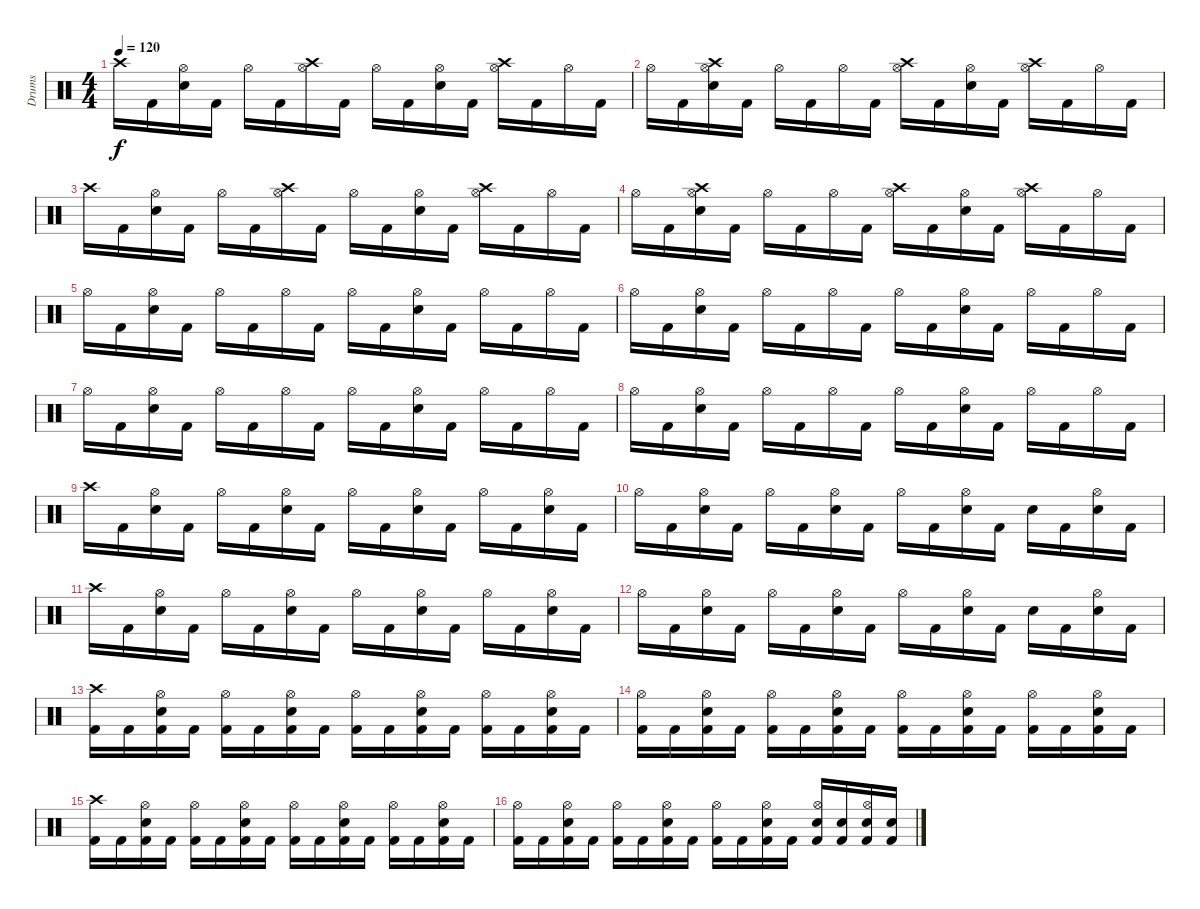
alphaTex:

\track ("Drums" "Drums") {instrument percussion}
\staff {score}
\articulation defaults
\ts (4 4)
\tempo 120
\clef neutral
\ks c "Crash high (hit)".16{dy f} "Kick (hit) 2".16
("Hi-Hat (open)" "Snare (hit) 2").16 "Kick (hit) 2".16 "Hi-Hat (open)".16 "Kick (hit) 2".16 ("Crash high (hit)" "Hi-Hat (open)").16 "Kick (hit) 2".16 "Hi-Hat (open)".16 "Kick (hit) 2".16 ("Hi-Hat (open)" "Snare (hit) 2").16 "Kick (hit) 2".16 ("Hi-Hat (open)" "Crash high (hit)").16 "Kick (hit) 2".16 "Hi-Hat (open)".16 "Kick (hit) 2".16 |
"Hi-Hat (open)".16 "Kick (hit) 2".16 ("Snare (hit) 2" "Hi-Hat (open)" "Crash high (hit)").16 "Kick (hit) 2".16 "Hi-Hat (open)".16 "Kick (hit) 2".16 "Hi-Hat (open)".16 "Kick (hit) 2".16 ("Hi-Hat (open)" "Crash high (hit)").16 "Kick (hit) 2".16 ("Snare (hit) 2" "Hi-Hat (open)").16 "Kick (hit) 2".16 ("Hi-Hat (open)" "Crash high (hit)").16 "Kick (hit) 2".16 "Hi-Hat (open)".16 "Kick (hit) 2".16 |
"Crash high (hit)".16 "Kick (hit) 2".16 ("Hi-Hat (open)" "Snare (hit) 2").16 "Kick (hit) 2".16 "Hi-Hat (open)".16 "Kick (hit) 2".16 ("Crash high (hit)" "Hi-Hat (open)").16 "Kick (hit) 2".16 "Hi-Hat (open)".16 "Kick (hit) 2".16 ("Hi-Hat (open)" "Snare (hit) 2").16 "Kick (hit) 2".16 ("Hi-Hat (open)" "Crash high (hit)").16 "Kick (hit) 2".16 "Hi-Hat (open)".16 "Kick (hit) 2".16 |
"Hi-Hat (open)".16 "Kick (hit) 2".16 ("Snare (hit) 2" "Hi-Hat (open)" "Crash high (hit)").16 "Kick (hit) 2".16 "Hi-Hat (open)".16 "Kick (hit) 2".16 "Hi-Hat (open)".16 "Kick (hit) 2".16 ("Hi-Hat (open)" "Crash high (hit)").16 "Kick (hit) 2".16 ("Snare (hit) 2" "Hi-Hat (open)").16 "Kick (hit) 2".16 ("Hi-Hat (open)" "Crash high (hit)").16 "Kick (hit) 2".16 "Hi-Hat (open)".16 "Kick (hit) 2".16 |
"Hi-Hat (open)".16 "Kick (hit) 2".16 ("Hi-Hat (open)" "Snare (hit) 2").16 "Kick (hit) 2".16 "Hi-Hat (open)".16 "Kick (hit) 2".16 "Hi-Hat (open)".16 "Kick (hit) 2".16 "Hi-Hat (open)".16 "Kick (hit) 2".16 ("Hi-Hat (open)" "Snare (hit) 2").16 "Kick (hit) 2".16 "Hi-Hat (open)".16 "Kick (hit) 2".16 "Hi-Hat (open)".16 "Kick (hit) 2".16 |
"Hi-Hat (open)".16 "Kick (hit) 2".16 ("Snare (hit) 2" "Hi-Hat (open)").16 "Kick (hit) 2".16 "Hi-Hat (open)".16 "Kick (hit) 2".16 "Hi-Hat (open)".16 "Kick (hit) 2".16 "Hi-Hat (open)".16 "Kick (hit) 2".16 ("Snare (hit) 2" "Hi-Hat (open)").16 "Kick (hit) 2".16 "Hi-Hat (open)".16 "Kick (hit) 2".16 "Hi-Hat (open)".16 "Kick (hit) 2".16 |
"Hi-Hat (open)".16 "Kick (hit) 2".16 ("Hi-Hat (open)" "Snare (hit) 2").16 "Kick (hit) 2".16 "Hi-Hat (open)".16 "Kick (hit) 2".16 "Hi-Hat (open)".16 "Kick (hit) 2".16 "Hi-Hat (open)".16 "Kick (hit) 2".16 ("Hi-Hat (open)" "Snare (hit) 2").16 "Kick (hit) 2".16 "Hi-Hat (open)".16 "Kick (hit) 2".16 "Hi-Hat (open)".16 "Kick (hit) 2".16 |
"Hi-Hat (open)".16 "Kick (hit) 2".16 ("Snare (hit) 2" "Hi-Hat (open)").16 "Kick (hit) 2".16 "Hi-Hat (open)".16 "Kick (hit) 2".16 "Hi-Hat (open)".16 "Kick (hit) 2".16 "Hi-Hat (open)".16 "Kick (hit) 2".16 ("Snare (hit) 2" "Hi-Hat (open)").16 "Kick (hit) 2".16 "Hi-Hat (open)".16 "Kick (hit) 2".16 "Hi-Hat (open)".16 "Kick (hit) 2".16 |
"Crash high (hit)".16 "Kick (hit) 2".16 ("Snare (hit) 2" "Hi-Hat (open)").16 "Kick (hit) 2".16 "Hi-Hat (open)".16 "Kick (hit) 2".16 ("Snare (hit) 2" "Hi-Hat (open)").16 "Kick (hit) 2".16 "Hi-Hat (open)".16 "Kick (hit) 2".16 ("Snare (hit) 2" "Hi-Hat (open)").16 "Kick (hit) 2".16 "Hi-Hat (open)".16 "Kick (hit) 2".16 ("Snare (hit) 2" "Hi-Hat (open)").16 "Kick (hit) 2".16 |
"Hi-Hat (open)".16 "Kick (hit) 2".16 ("Snare (hit) 2" "Hi-Hat (open)").16 "Kick (hit) 2".16 "Hi-Hat (open)".16 "Kick (hit) 2".16 ("Snare (hit) 2" "Hi-Hat (open)").16 "Kick (hit) 2".16 "Hi-Hat (open)".16 "Kick (hit) 2".16 ("Snare (hit) 2" "Hi-Hat (open)").16 "Kick (hit) 2".16 "Snare (hit) 2".16 "Kick (hit) 2".16 ("Snare (hit) 2" "Hi-Hat (open)").16 "Kick (hit) 2".16 |
"Crash high (hit)".16 "Kick (hit) 2".16 ("Snare (hit) 2" "Hi-Hat (open)").16 "Kick (hit) 2".16 "Hi-Hat (open)".16 "Kick (hit) 2".16 ("Snare (hit) 2" "Hi-Hat (open)").16 "Kick (hit) 2".16 "Hi-Hat (open)".16 "Kick (hit) 2".16 ("Snare (hit) 2" "Hi-Hat (open)").16 "Kick (hit) 2".16 "Hi-Hat (open)".16 "Kick (hit) 2".16 ("Snare (hit) 2" "Hi-Hat (open)").16 "Kick (hit) 2".16 |
"Hi-Hat (open)".16 "Kick (hit) 2".16 ("Snare (hit) 2" "Hi-Hat (open)").16 "Kick (hit) 2".16 "Hi-Hat (open)".16 "Kick (hit) 2".16 ("Snare (hit) 2" "Hi-Hat (open)").16 "Kick (hit) 2".16 "Hi-Hat (open)".16 "Kick (hit) 2".16 ("Snare (hit) 2" "Hi-Hat (open)").16 "Kick (hit) 2".16 "Snare (hit) 2".16 "Kick (hit) 2".16 ("Snare (hit) 2" "Hi-Hat (open)").16 "Kick (hit) 2".16 |
("Kick (hit) 2" "Crash high (hit)").16 "Kick (hit) 2".16 ("Kick (hit) 2" "Snare (hit) 2" "Hi-Hat (open)").16 "Kick (hit) 2".16 ("Kick (hit) 2" "Hi-Hat (open)").16 "Kick (hit) 2".16 ("Kick (hit) 2" "Snare (hit) 2" "Hi-Hat (open)").16 "Kick (hit) 2".16 ("Kick (hit) 2" "Hi-Hat (open)").16 "Kick (hit) 2".16 ("Kick (hit) 2" "Snare (hit) 2" "Hi-Hat (open)").16 "Kick (hit) 2".16 ("Kick (hit) 2" "Hi-Hat (open)").16 "Kick (hit) 2".16 ("Kick (hit) 2" "Snare (hit) 2" "Hi-Hat (open)").16 "Kick (hit) 2".16 |
("Kick (hit) 2" "Hi-Hat (open)").16 "Kick (hit) 2".16 ("Kick (hit) 2" "Snare (hit) 2" "Hi-Hat (open)").16 "Kick (hit) 2".16 ("Kick (hit) 2" "Hi-Hat (open)").16 "Kick (hit) 2".16 ("Kick (hit) 2" "Snare (hit) 2" "Hi-Hat (open)").16 "Kick (hit) 2".16 ("Kick (hit) 2" "Hi-Hat (open)").16 "Kick (hit) 2".16 ("Kick (hit) 2" "Snare (hit) 2" "Hi-Hat (open)").16 "Kick (hit) 2".16 ("Kick (hit) 2" "Hi-Hat (open)").16 "Kick (hit) 2".16 ("Kick (hit) 2" "Snare (hit) 2" "Hi-Hat (open)").16 "Kick (hit) 2".16 |
("Kick (hit) 2" "Crash high (hit)").16 "Kick (hit) 2".16 ("Kick (hit) 2" "Snare (hit) 2" "Hi-Hat (open)").16 "Kick (hit) 2".16 ("Kick (hit) 2" "Hi-Hat (open)").16 "Kick (hit) 2".16 ("Kick (hit) 2" "Snare (hit) 2" "Hi-Hat (open)").16 "Kick (hit) 2".16 ("Kick (hit) 2" "Hi-Hat (open)").16 "Kick (hit) 2".16 ("Kick (hit) 2" "Snare (hit) 2" "Hi-Hat (open)").16 "Kick (hit) 2".16 ("Kick (hit) 2" "Hi-Hat (open)").16 "Kick (hit) 2".16 ("Kick (hit) 2" "Snare (hit) 2" "Hi-Hat (open)").16 "Kick (hit) 2".16 |
("Kick (hit) 2" "Hi-Hat (open)").16 "Kick (hit) 2".16 ("Kick (hit) 2" "Snare (hit) 2" "Hi-Hat (open)").16 "Kick (hit) 2".16 ("Kick (hit) 2" "Hi-Hat (open)").16 "Kick (hit) 2".16 ("Kick (hit) 2" "Snare (hit) 2" "Hi-Hat (open)").16 "Kick (hit) 2".16 ("Kick (hit) 2" "Hi-Hat (open)").16 "Kick (hit) 2".16 ("Kick (hit) 2" "Snare (hit) 2" "Hi-Hat (open)").16 "Kick (hit) 2".16 ("Kick (hit) 2" "Hi-Hat (open)" "Snare (hit) 2").16 ("Kick (hit) 2" "Snare (hit) 2").16 ("Kick (hit) 2" "Snare (hit) 2" "Hi-Hat (open)").16 ("Kick (hit) 2" "Snare (hit) 2").16
